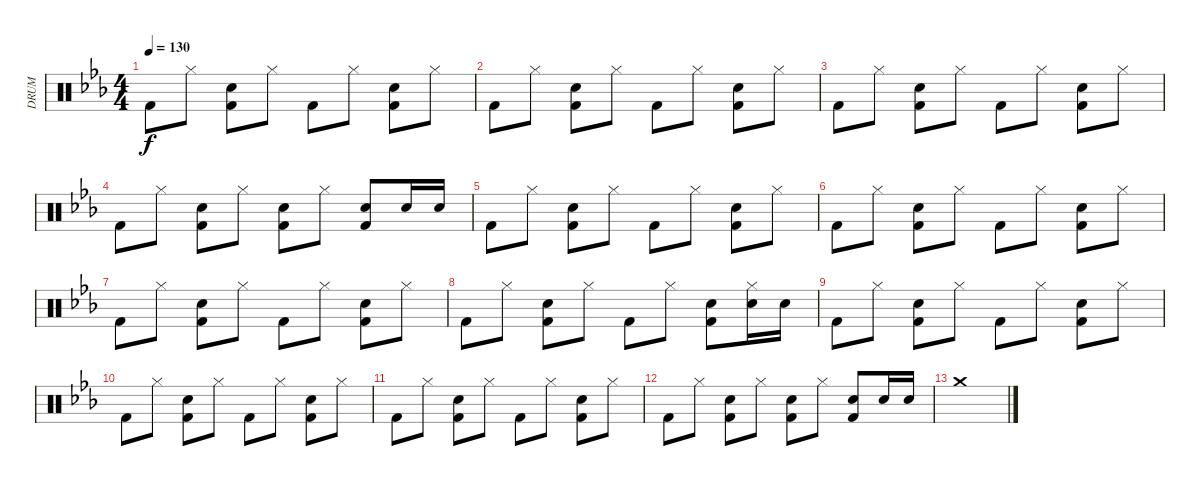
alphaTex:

\track ("DRUM" "DRUM") {instrument percussion}
\staff {score}
\articulation defaults
\ts (4 4)
\tempo 130
\clef neutral
\ks eb "Kick (hit) 2".8{dy f} "Hi-Hat (closed)".8
("Hand Clap (hit)" "Kick (hit) 2").8 "Hi-Hat (closed)".8 "Kick (hit) 2".8 "Hi-Hat (closed)".8 ("Hand Clap (hit)" "Kick (hit) 2").8 "Hi-Hat (closed)".8 |
"Kick (hit) 2".8 "Hi-Hat (closed)".8 ("Hand Clap (hit)" "Kick (hit) 2").8 "Hi-Hat (closed)".8 "Kick (hit) 2".8 "Hi-Hat (closed)".8 ("Hand Clap (hit)" "Kick (hit) 2").8 "Hi-Hat (closed)".8 |
"Kick (hit) 2".8 "Hi-Hat (closed)".8 ("Hand Clap (hit)" "Kick (hit) 2").8 "Hi-Hat (closed)".8 "Kick (hit) 2".8 "Hi-Hat (closed)".8 ("Hand Clap (hit)" "Kick (hit) 2").8 "Hi-Hat (closed)".8 |
"Kick (hit) 2".8 "Hi-Hat (closed)".8 ("Hand Clap (hit)" "Kick (hit) 2").8 "Hi-Hat (closed)".8 ("Hand Clap (hit)" "Kick (hit) 2").8 "Hi-Hat (closed)".8 ("Hand Clap (hit)" "Kick (hit) 2").8 "Hand Clap (hit)".16 "Hand Clap (hit)".16 |
"Kick (hit) 2".8 "Hi-Hat (closed)".8 ("Hand Clap (hit)" "Kick (hit) 2").8 "Hi-Hat (closed)".8 "Kick (hit) 2".8 "Hi-Hat (closed)".8 ("Hand Clap (hit)" "Kick (hit) 2").8 "Hi-Hat (closed)".8 |
"Kick (hit) 2".8 "Hi-Hat (closed)".8 ("Hand Clap (hit)" "Kick (hit) 2").8 "Hi-Hat (closed)".8 "Kick (hit) 2".8 "Hi-Hat (closed)".8 ("Hand Clap (hit)" "Kick (hit) 2").8 "Hi-Hat (closed)".8 |
"Kick (hit) 2".8 "Hi-Hat (closed)".8 ("Hand Clap (hit)" "Kick (hit) 2").8 "Hi-Hat (closed)".8 "Kick (hit) 2".8 "Hi-Hat (closed)".8 ("Hand Clap (hit)" "Kick (hit) 2").8 "Hi-Hat (closed)".8 |
"Kick (hit) 2".8 "Hi-Hat (closed)".8 ("Hand Clap (hit)" "Kick (hit) 2").8 "Hi-Hat (closed)".8 "Kick (hit) 2".8 "Hi-Hat (closed)".8 ("Hand Clap (hit)" "Kick (hit) 2").8 ("Hi-Hat (closed)" "Hand Clap (hit)").16 "Hand Clap (hit)".16 |
"Kick (hit) 2".8 "Hi-Hat (closed)".8 ("Hand Clap (hit)" "Kick (hit) 2").8 "Hi-Hat (closed)".8 "Kick (hit) 2".8 "Hi-Hat (closed)".8 ("Hand Clap (hit)" "Kick (hit) 2").8 "Hi-Hat (closed)".8 |
"Kick (hit) 2".8 "Hi-Hat (closed)".8 ("Hand Clap (hit)" "Kick (hit) 2").8 "Hi-Hat (closed)".8 "Kick (hit) 2".8 "Hi-Hat (closed)".8 ("Hand Clap (hit)" "Kick (hit) 2").8 "Hi-Hat (closed)".8 |
"Kick (hit) 2".8 "Hi-Hat (closed)".8 ("Hand Clap (hit)" "Kick (hit) 2").8 "Hi-Hat (closed)".8 "Kick (hit) 2".8 "Hi-Hat (closed)".8 ("Hand Clap (hit)" "Kick (hit) 2").8 "Hi-Hat (closed)".8 |
"Kick (hit) 2".8 "Hi-Hat (closed)".8 ("Hand Clap (hit)" "Kick (hit) 2").8 "Hi-Hat (closed)".8 ("Hand Clap (hit)" "Kick (hit) 2").8 "Hi-Hat (closed)".8 ("Hand Clap (hit)" "Kick (hit) 2").8 "Hand Clap (hit)".16 "Hand Clap (hit)".16 |
"Crash medium (hit)".1
